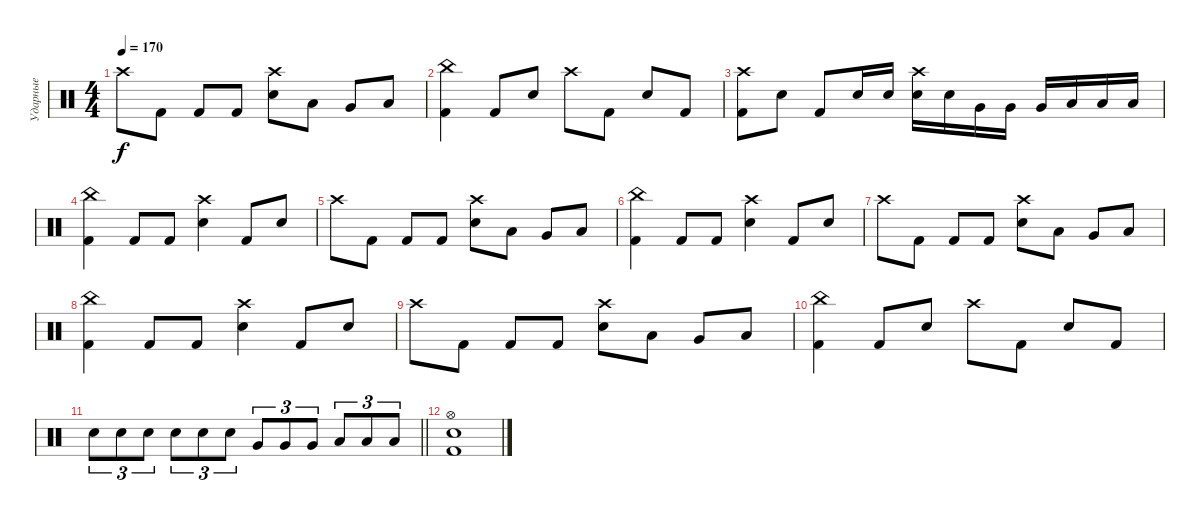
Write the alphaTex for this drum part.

\track ("Ударные" "Ударные") {instrument percussion}
\staff {score}
\articulation defaults
\ts (4 4)
\tempo 170
\clef neutral
\ks c "Crash high (hit)".8{dy f} "Kick (hit) 2".8 "Kick (hit) 2".8 "Kick (hit) 2".8
("Electric Snare (hit)" "Crash high (hit)").8 "Low Tom (hit)".8 "Very Low Tom (hit)".8 "Low Floor Tom (hit)".8 |
("Kick (hit) 2" "China (hit)").4 "Kick (hit) 2".8 "Electric Snare (hit)".8 "Crash high (hit)".8 "Kick (hit) 2".8 "Electric Snare (hit)".8 "Kick (hit) 2".8 |
("Kick (hit) 2" "Crash high (hit)").8 "Electric Snare (hit)".8 "Kick (hit) 2".8 "Electric Snare (hit)".16 "Electric Snare (hit)".16 ("Electric Snare (hit)" "Crash high (hit)").16 "Electric Snare (hit)".16 "Very Low Tom (hit)".16 "Very Low Tom (hit)".16 "Very Low Tom (hit)".16 "Low Floor Tom (hit)".16 "Low Floor Tom (hit)".16 "Low Floor Tom (hit)".16 |
("Kick (hit) 2" "China (hit)").4 "Kick (hit) 2".8 "Kick (hit) 2".8 ("Electric Snare (hit)" "Crash high (hit)").4 "Kick (hit) 2".8 "Electric Snare (hit)".8 |
"Crash high (hit)".8 "Kick (hit) 2".8 "Kick (hit) 2".8 "Kick (hit) 2".8 ("Electric Snare (hit)" "Crash high (hit)").8 "Low Tom (hit)".8 "Very Low Tom (hit)".8 "Low Floor Tom (hit)".8 |
("Kick (hit) 2" "China (hit)").4 "Kick (hit) 2".8 "Kick (hit) 2".8 ("Electric Snare (hit)" "Crash high (hit)").4 "Kick (hit) 2".8 "Electric Snare (hit)".8 |
"Crash high (hit)".8 "Kick (hit) 2".8 "Kick (hit) 2".8 "Kick (hit) 2".8 ("Electric Snare (hit)" "Crash high (hit)").8 "Low Tom (hit)".8 "Very Low Tom (hit)".8 "Low Floor Tom (hit)".8 |
("Kick (hit) 2" "China (hit)").4 "Kick (hit) 2".8 "Kick (hit) 2".8 ("Electric Snare (hit)" "Crash high (hit)").4 "Kick (hit) 2".8 "Electric Snare (hit)".8 |
"Crash high (hit)".8 "Kick (hit) 2".8 "Kick (hit) 2".8 "Kick (hit) 2".8 ("Electric Snare (hit)" "Crash high (hit)").8 "Low Tom (hit)".8 "Very Low Tom (hit)".8 "Low Floor Tom (hit)".8 |
("Kick (hit) 2" "China (hit)").4 "Kick (hit) 2".8 "Electric Snare (hit)".8 "Crash high (hit)".8 "Kick (hit) 2".8 "Electric Snare (hit)".8 "Kick (hit) 2".8 |
\barLineRight lightlight "Electric Snare (hit)".8{tu (3 2)} "Electric Snare (hit)".8{tu (3 2)} "Electric Snare (hit)".8{tu (3 2)} "Electric Snare (hit)".8{tu (3 2)} "Electric Snare (hit)".8{tu (3 2)} "Electric Snare (hit)".8{tu (3 2)} "Very Low Tom (hit)".8{tu (3 2)} "Very Low Tom (hit)".8{tu (3 2)} "Very Low Tom (hit)".8{tu (3 2)} "Low Floor Tom (hit)".8{tu (3 2)} "Low Floor Tom (hit)".8{tu (3 2)} "Low Floor Tom (hit)".8{tu (3 2)}
|
("Electric Snare (hit)" "Hi-Hat (open)" "Kick (hit) 2").1
